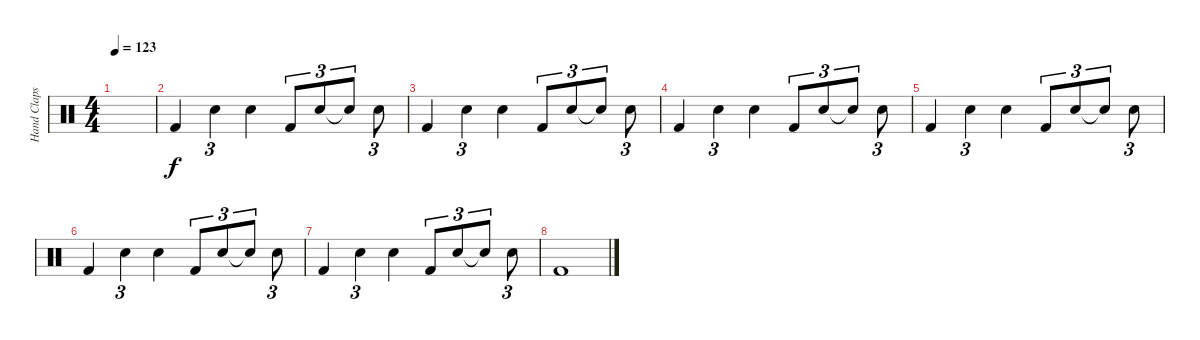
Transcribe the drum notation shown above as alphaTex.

\track ("Hand Claps" "Hand Claps") {instrument percussion}
\staff {score}
\articulation defaults
\ts (4 4)
\tempo 123
\clef neutral
\ks c
|
"Kick (hit) 2".4 "Hand Clap (hit)".4{tu (3 2)} "Hand Clap (hit)".4 "Kick (hit) 2".8{tu (3 2)} "Hand Clap (hit)".8{tu (3 2)} "Hand Clap (hit)"{t}.8{tu (3 2)} "Hand Clap (hit)".8{tu (3 2)} |
"Kick (hit) 2".4 "Hand Clap (hit)".4{tu (3 2)} "Hand Clap (hit)".4 "Kick (hit) 2".8{tu (3 2)} "Hand Clap (hit)".8{tu (3 2)} "Hand Clap (hit)"{t}.8{tu (3 2)} "Hand Clap (hit)".8{tu (3 2)} |
"Kick (hit) 2".4 "Hand Clap (hit)".4{tu (3 2)} "Hand Clap (hit)".4 "Kick (hit) 2".8{tu (3 2)} "Hand Clap (hit)".8{tu (3 2)} "Hand Clap (hit)"{t}.8{tu (3 2)} "Hand Clap (hit)".8{tu (3 2)} |
"Kick (hit) 2".4 "Hand Clap (hit)".4{tu (3 2)} "Hand Clap (hit)".4 "Kick (hit) 2".8{tu (3 2)} "Hand Clap (hit)".8{tu (3 2)} "Hand Clap (hit)"{t}.8{tu (3 2)} "Hand Clap (hit)".8{tu (3 2)} |
"Kick (hit) 2".4 "Hand Clap (hit)".4{tu (3 2)} "Hand Clap (hit)".4 "Kick (hit) 2".8{tu (3 2)} "Hand Clap (hit)".8{tu (3 2)} "Hand Clap (hit)"{t}.8{tu (3 2)} "Hand Clap (hit)".8{tu (3 2)} |
"Kick (hit) 2".4 "Hand Clap (hit)".4{tu (3 2)} "Hand Clap (hit)".4 "Kick (hit) 2".8{tu (3 2)} "Hand Clap (hit)".8{tu (3 2)} "Hand Clap (hit)"{t}.8{tu (3 2)} "Hand Clap (hit)".8{tu (3 2)} |
"Kick (hit) 2".1
